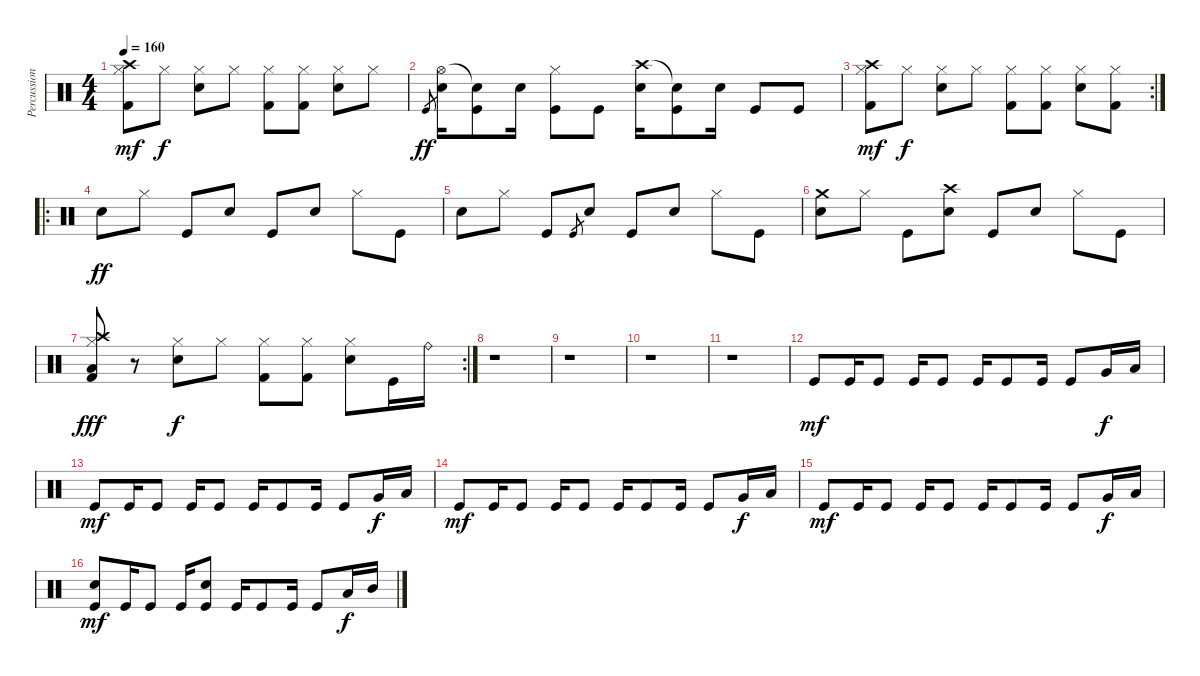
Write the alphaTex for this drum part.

\track ("Percussion" "Percussion") {instrument percussion}
\staff {score}
\articulation defaults
\ts (4 4)
\tempo 160
\clef neutral
\ks c
("Kick (hit) 2" "Hi-Hat (closed)" "Crash high (hit)").8{dy mf} "Hi-Hat (closed)".8{dy f} ("Snare (hit) 2" "Hi-Hat (closed)").8 "Hi-Hat (closed)".8 ("Kick (hit) 2" "Hi-Hat (closed)").8 ("Kick (hit) 2" "Hi-Hat (closed)").8 ("Snare (hit) 2" "Hi-Hat (closed)").8 "Hi-Hat (closed)".8 |
"Kick (hit)".8{gr dy ff} ("Electric Snare (hit)" "Hi-Hat (open)").16 ("Kick (hit)" "Snare (hit)"{t}).8 "Electric Snare (hit)".16 ("Kick (hit)" "Hi-Hat (closed)").8 "Kick (hit)".8 ("Snare (hit) 2" "Crash high (hit)").16 ("Kick (hit)" "Snare (hit)"{t}).8 "Snare (hit) 2".16 "Kick (hit)".8 "Kick (hit)".8 |
\rc 2
("Kick (hit) 2" "Hi-Hat (closed)" "Crash high (hit)").8{dy mf} "Hi-Hat (closed)".8{dy f} ("Snare (hit) 2" "Hi-Hat (closed)").8 "Hi-Hat (closed)".8 ("Kick (hit) 2" "Hi-Hat (closed)").8 ("Kick (hit) 2" "Hi-Hat (closed)").8 ("Snare (hit) 2" "Hi-Hat (closed)").8 ("Kick (hit) 2" "Hi-Hat (closed)").8 |
\ro "Electric Snare (hit)".8{dy ff} "Hi-Hat (closed)".8 "Kick (hit)".8 "Electric Snare (hit)".8 "Kick (hit)".8 "Electric Snare (hit)".8 "Hi-Hat (closed)".8 "Kick (hit)".8
|
"Electric Snare (hit)".8 "Hi-Hat (closed)".8 "Kick (hit)".8 "Kick (hit)".8{gr} "Electric Snare (hit)".8 "Kick (hit)".8 "Electric Snare (hit)".8 "Hi-Hat (closed)".8 "Kick (hit)".8 |
("Electric Snare (hit)" "Crash medium (hit)").8 "Hi-Hat (closed)".8 "Kick (hit)".8 ("Electric Snare (hit)" "Crash high (hit)").8 "Kick (hit)".8 "Electric Snare (hit)".8 "Hi-Hat (closed)".8 "Kick (hit)".8 |
\rc 2
("Kick (hit) 2" "Hi-Hat (closed)" "Crash high (hit)" "Low Floor Tom (hit)").8{dy fff} r.8 ("Snare (hit) 2" "Hi-Hat (closed)").8{dy f} "Hi-Hat (closed)".8 ("Kick (hit) 2" "Hi-Hat (closed)").8 ("Kick (hit) 2" "Hi-Hat (closed)").8 ("Snare (hit) 2" "Hi-Hat (closed)").8 "Kick (hit)".16 "Ride (bell)".16 |
r.1 |
r.1 |
r.1 |
r.1 |
"Kick (hit)".8{dy mf volume 12} "Kick (hit)".16 "Kick (hit)".8 "Kick (hit)".16 "Kick (hit)".8 "Kick (hit)".16 "Kick (hit)".8 "Kick (hit)".16 "Kick (hit)".8 "Very Low Tom (hit)".16{dy f} "Low Tom (hit)".16 |
"Kick (hit)".8{dy mf} "Kick (hit)".16 "Kick (hit)".8 "Kick (hit)".16 "Kick (hit)".8 "Kick (hit)".16 "Kick (hit)".8 "Kick (hit)".16 "Kick (hit)".8 "Very Low Tom (hit)".16{dy f} "Low Tom (hit)".16 |
"Kick (hit)".8{dy mf} "Kick (hit)".16 "Kick (hit)".8 "Kick (hit)".16 "Kick (hit)".8 "Kick (hit)".16 "Kick (hit)".8 "Kick (hit)".16 "Kick (hit)".8 "Very Low Tom (hit)".16{dy f} "Low Tom (hit)".16 |
"Kick (hit)".8{dy mf} "Kick (hit)".16 "Kick (hit)".8 "Kick (hit)".16 "Kick (hit)".8 "Kick (hit)".16 "Kick (hit)".8 "Kick (hit)".16 "Kick (hit)".8 "Very Low Tom (hit)".16{dy f} "Low Tom (hit)".16 |
("Kick (hit)" "Electric Snare (hit)").8{dy mf} "Kick (hit)".16 "Kick (hit)".8 "Kick (hit)".16 ("Kick (hit)" "Snare (hit) 2").8 "Kick (hit)".16 "Kick (hit)".8 "Kick (hit)".16 "Kick (hit)".8 "Low Tom (hit)".16{dy f} "Mid Tom (hit)".16
